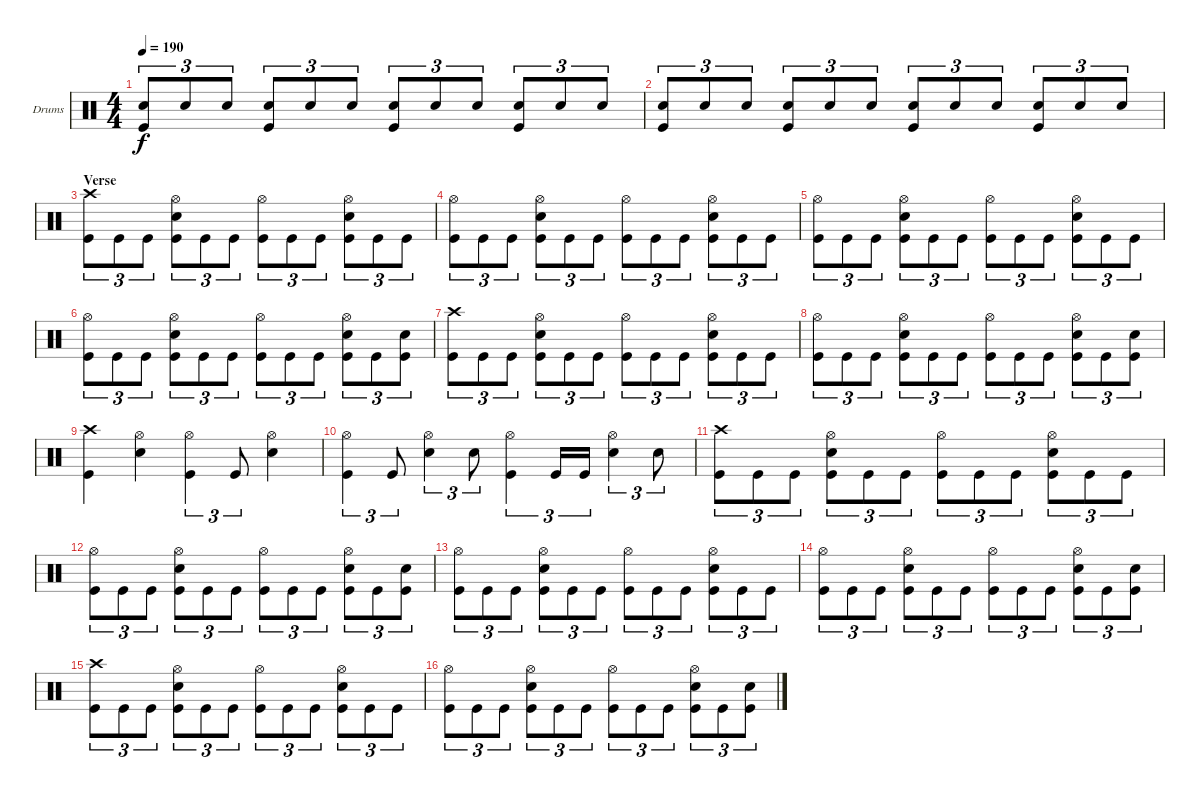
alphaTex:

\bracketExtendMode groupsimilarinstruments
\firstSystemTrackNameOrientation horizontal
\otherSystemsTrackNameOrientation horizontal
\track ("Drums" "Drums") {instrument percussion}
\staff {score}
\articulation defaults
\ts (4 4)
\tempo 190
\clef neutral
\ks c
("Snare (hit) 2" "Kick (hit)").8{tu (3 2) dy f} "Snare (hit) 2".8{tu (3 2)} "Snare (hit) 2".8{tu (3 2)} ("Snare (hit) 2" "Kick (hit)").8{tu (3 2)} "Snare (hit) 2".8{tu (3 2)} "Snare (hit) 2".8{tu (3 2)} ("Snare (hit) 2" "Kick (hit)").8{tu (3 2)} "Snare (hit) 2".8{tu (3 2)} "Snare (hit) 2".8{tu (3 2)} ("Snare (hit) 2" "Kick (hit)").8{tu (3 2)} "Snare (hit) 2".8{tu (3 2)} "Snare (hit) 2".8{tu (3 2)} |
("Snare (hit) 2" "Kick (hit)").8{tu (3 2)} "Snare (hit) 2".8{tu (3 2)} "Snare (hit) 2".8{tu (3 2)} ("Snare (hit) 2" "Kick (hit)").8{tu (3 2)} "Snare (hit) 2".8{tu (3 2)} "Snare (hit) 2".8{tu (3 2)} ("Snare (hit) 2" "Kick (hit)").8{tu (3 2)} "Snare (hit) 2".8{tu (3 2)} "Snare (hit) 2".8{tu (3 2)} ("Snare (hit) 2" "Kick (hit)").8{tu (3 2)} "Snare (hit) 2".8{tu (3 2)} "Snare (hit) 2".8{tu (3 2)} |
\section ("" "Verse")
("Kick (hit)" "Crash high (hit)").8{tu (3 2)} "Kick (hit)".8{tu (3 2)} "Kick (hit)".8{tu (3 2)} ("Snare (hit) 2" "Kick (hit)" "Hi-Hat (open)").8{tu (3 2)} "Kick (hit)".8{tu (3 2)} "Kick (hit)".8{tu (3 2)} ("Kick (hit)" "Hi-Hat (open)").8{tu (3 2)} "Kick (hit)".8{tu (3 2)} "Kick (hit)".8{tu (3 2)} ("Snare (hit) 2" "Kick (hit)" "Hi-Hat (open)").8{tu (3 2)} "Kick (hit)".8{tu (3 2)} "Kick (hit)".8{tu (3 2)} |
("Kick (hit)" "Hi-Hat (open)").8{tu (3 2)} "Kick (hit)".8{tu (3 2)} "Kick (hit)".8{tu (3 2)} ("Snare (hit) 2" "Kick (hit)" "Hi-Hat (open)").8{tu (3 2)} "Kick (hit)".8{tu (3 2)} "Kick (hit)".8{tu (3 2)} ("Kick (hit)" "Hi-Hat (open)").8{tu (3 2)} "Kick (hit)".8{tu (3 2)} "Kick (hit)".8{tu (3 2)} ("Snare (hit) 2" "Kick (hit)" "Hi-Hat (open)").8{tu (3 2)} "Kick (hit)".8{tu (3 2)} "Kick (hit)".8{tu (3 2)} |
("Kick (hit)" "Hi-Hat (open)").8{tu (3 2)} "Kick (hit)".8{tu (3 2)} "Kick (hit)".8{tu (3 2)} ("Snare (hit) 2" "Kick (hit)" "Hi-Hat (open)").8{tu (3 2)} "Kick (hit)".8{tu (3 2)} "Kick (hit)".8{tu (3 2)} ("Kick (hit)" "Hi-Hat (open)").8{tu (3 2)} "Kick (hit)".8{tu (3 2)} "Kick (hit)".8{tu (3 2)} ("Snare (hit) 2" "Kick (hit)" "Hi-Hat (open)").8{tu (3 2)} "Kick (hit)".8{tu (3 2)} "Kick (hit)".8{tu (3 2)} |
("Kick (hit)" "Hi-Hat (open)").8{tu (3 2)} "Kick (hit)".8{tu (3 2)} "Kick (hit)".8{tu (3 2)} ("Snare (hit) 2" "Kick (hit)" "Hi-Hat (open)").8{tu (3 2)} "Kick (hit)".8{tu (3 2)} "Kick (hit)".8{tu (3 2)} ("Kick (hit)" "Hi-Hat (open)").8{tu (3 2)} "Kick (hit)".8{tu (3 2)} "Kick (hit)".8{tu (3 2)} ("Snare (hit) 2" "Kick (hit)" "Hi-Hat (open)").8{tu (3 2)} "Kick (hit)".8{tu (3 2)} ("Kick (hit)" "Snare (hit) 2").8{tu (3 2)} |
("Kick (hit)" "Crash high (hit)").8{tu (3 2)} "Kick (hit)".8{tu (3 2)} "Kick (hit)".8{tu (3 2)} ("Snare (hit) 2" "Kick (hit)" "Hi-Hat (open)").8{tu (3 2)} "Kick (hit)".8{tu (3 2)} "Kick (hit)".8{tu (3 2)} ("Kick (hit)" "Hi-Hat (open)").8{tu (3 2)} "Kick (hit)".8{tu (3 2)} "Kick (hit)".8{tu (3 2)} ("Snare (hit) 2" "Kick (hit)" "Hi-Hat (open)").8{tu (3 2)} "Kick (hit)".8{tu (3 2)} "Kick (hit)".8{tu (3 2)} |
("Kick (hit)" "Hi-Hat (open)").8{tu (3 2)} "Kick (hit)".8{tu (3 2)} "Kick (hit)".8{tu (3 2)} ("Snare (hit) 2" "Kick (hit)" "Hi-Hat (open)").8{tu (3 2)} "Kick (hit)".8{tu (3 2)} "Kick (hit)".8{tu (3 2)} ("Kick (hit)" "Hi-Hat (open)").8{tu (3 2)} "Kick (hit)".8{tu (3 2)} "Kick (hit)".8{tu (3 2)} ("Snare (hit) 2" "Kick (hit)" "Hi-Hat (open)").8{tu (3 2)} "Kick (hit)".8{tu (3 2)} ("Kick (hit)" "Snare (hit) 2").8{tu (3 2)} |
("Crash high (hit)" "Kick (hit)").4 ("Snare (hit) 2" "Hi-Hat (open)").4 ("Hi-Hat (open)" "Kick (hit)").4{tu (3 2)} "Kick (hit)".8{tu (3 2)} ("Snare (hit) 2" "Hi-Hat (open)").4 |
("Kick (hit)" "Hi-Hat (open)").4{tu (3 2)} "Kick (hit)".8{tu (3 2)} ("Snare (hit) 2" "Hi-Hat (open)").4{tu (3 2)} "Snare (hit) 2".8{tu (3 2)} ("Kick (hit)" "Hi-Hat (open)").4{tu (3 2)} "Kick (hit)".16{tu (3 2)} "Kick (hit)".16{tu (3 2)} ("Snare (hit) 2" "Hi-Hat (open)").4{tu (3 2)} "Snare (hit) 2".8{tu (3 2)} |
("Kick (hit)" "Crash high (hit)").8{tu (3 2)} "Kick (hit)".8{tu (3 2)} "Kick (hit)".8{tu (3 2)} ("Snare (hit) 2" "Kick (hit)" "Hi-Hat (open)").8{tu (3 2)} "Kick (hit)".8{tu (3 2)} "Kick (hit)".8{tu (3 2)} ("Kick (hit)" "Hi-Hat (open)").8{tu (3 2)} "Kick (hit)".8{tu (3 2)} "Kick (hit)".8{tu (3 2)} ("Snare (hit) 2" "Kick (hit)" "Hi-Hat (open)").8{tu (3 2)} "Kick (hit)".8{tu (3 2)} "Kick (hit)".8{tu (3 2)} |
("Kick (hit)" "Hi-Hat (open)").8{tu (3 2)} "Kick (hit)".8{tu (3 2)} "Kick (hit)".8{tu (3 2)} ("Snare (hit) 2" "Kick (hit)" "Hi-Hat (open)").8{tu (3 2)} "Kick (hit)".8{tu (3 2)} "Kick (hit)".8{tu (3 2)} ("Kick (hit)" "Hi-Hat (open)").8{tu (3 2)} "Kick (hit)".8{tu (3 2)} "Kick (hit)".8{tu (3 2)} ("Snare (hit) 2" "Kick (hit)" "Hi-Hat (open)").8{tu (3 2)} "Kick (hit)".8{tu (3 2)} ("Kick (hit)" "Snare (hit) 2").8{tu (3 2)} |
("Kick (hit)" "Hi-Hat (open)").8{tu (3 2)} "Kick (hit)".8{tu (3 2)} "Kick (hit)".8{tu (3 2)} ("Snare (hit) 2" "Kick (hit)" "Hi-Hat (open)").8{tu (3 2)} "Kick (hit)".8{tu (3 2)} "Kick (hit)".8{tu (3 2)} ("Kick (hit)" "Hi-Hat (open)").8{tu (3 2)} "Kick (hit)".8{tu (3 2)} "Kick (hit)".8{tu (3 2)} ("Snare (hit) 2" "Kick (hit)" "Hi-Hat (open)").8{tu (3 2)} "Kick (hit)".8{tu (3 2)} "Kick (hit)".8{tu (3 2)} |
("Kick (hit)" "Hi-Hat (open)").8{tu (3 2)} "Kick (hit)".8{tu (3 2)} "Kick (hit)".8{tu (3 2)} ("Snare (hit) 2" "Kick (hit)" "Hi-Hat (open)").8{tu (3 2)} "Kick (hit)".8{tu (3 2)} "Kick (hit)".8{tu (3 2)} ("Kick (hit)" "Hi-Hat (open)").8{tu (3 2)} "Kick (hit)".8{tu (3 2)} "Kick (hit)".8{tu (3 2)} ("Snare (hit) 2" "Kick (hit)" "Hi-Hat (open)").8{tu (3 2)} "Kick (hit)".8{tu (3 2)} ("Kick (hit)" "Snare (hit) 2").8{tu (3 2)} |
("Kick (hit)" "Crash high (hit)").8{tu (3 2)} "Kick (hit)".8{tu (3 2)} "Kick (hit)".8{tu (3 2)} ("Snare (hit) 2" "Kick (hit)" "Hi-Hat (open)").8{tu (3 2)} "Kick (hit)".8{tu (3 2)} "Kick (hit)".8{tu (3 2)} ("Kick (hit)" "Hi-Hat (open)").8{tu (3 2)} "Kick (hit)".8{tu (3 2)} "Kick (hit)".8{tu (3 2)} ("Snare (hit) 2" "Kick (hit)" "Hi-Hat (open)").8{tu (3 2)} "Kick (hit)".8{tu (3 2)} "Kick (hit)".8{tu (3 2)} |
("Kick (hit)" "Hi-Hat (open)").8{tu (3 2)} "Kick (hit)".8{tu (3 2)} "Kick (hit)".8{tu (3 2)} ("Snare (hit) 2" "Kick (hit)" "Hi-Hat (open)").8{tu (3 2)} "Kick (hit)".8{tu (3 2)} "Kick (hit)".8{tu (3 2)} ("Kick (hit)" "Hi-Hat (open)").8{tu (3 2)} "Kick (hit)".8{tu (3 2)} "Kick (hit)".8{tu (3 2)} ("Snare (hit) 2" "Kick (hit)" "Hi-Hat (open)").8{tu (3 2)} "Kick (hit)".8{tu (3 2)} ("Kick (hit)" "Snare (hit) 2").8{tu (3 2)}
